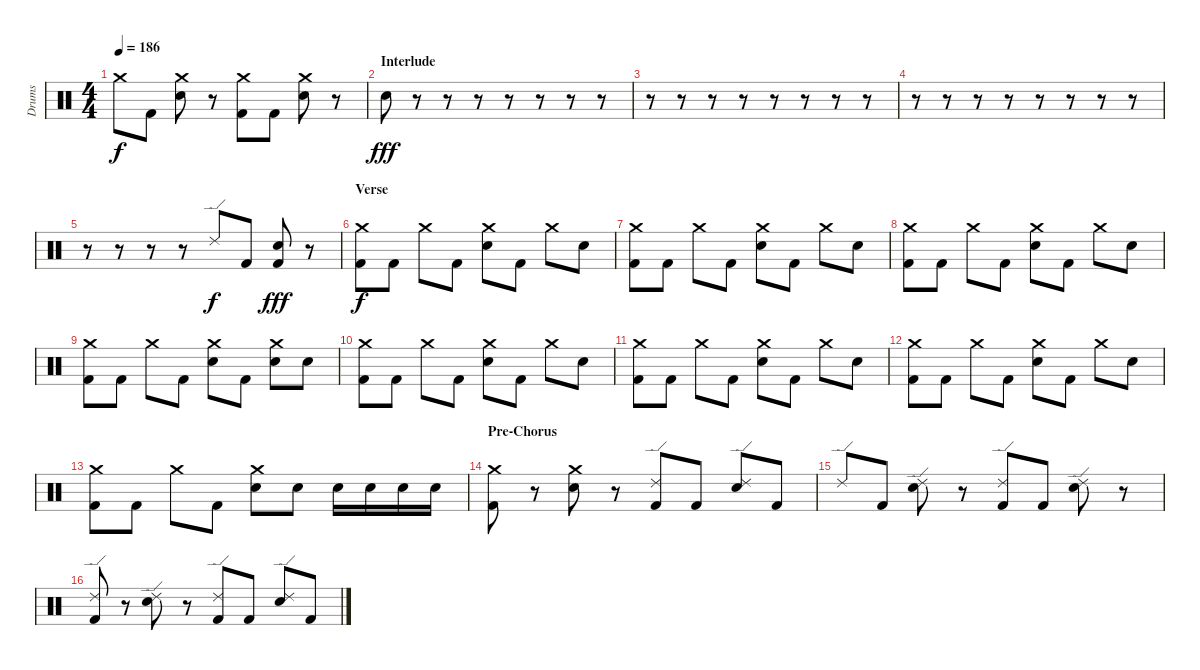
\track ("Drums" "Drums") {instrument percussion}
\staff {score}
\articulation defaults
\ts (4 4)
\tempo 186
\clef neutral
\ks c "Crash medium (hit)".8{dy f} "Kick (hit) 2".8
("Crash medium (hit)" "Electric Snare (hit)").8 r.8 ("Crash medium (hit)" "Kick (hit) 2").8 "Kick (hit) 2".8 ("Crash medium (hit)" "Electric Snare (hit)").8 r.8 |
\section ("" "Interlude")
"Electric Snare (hit)".8{dy fff} r.8 r.8 r.8 r.8 r.8 r.8 r.8 |
r.8 r.8 r.8 r.8 r.8 r.8 r.8 r.8 |
r.8 r.8 r.8 r.8 r.8 r.8 r.8 r.8 |
r.8 r.8 r.8 r.8 "Ride (edge) 2".8{dy f} "Kick (hit) 2".8 ("Electric Snare (hit)" "Kick (hit) 2").8{dy fff} r.8 |
\section ("" "Verse")
("Crash medium (hit)" "Kick (hit) 2").8{dy f} "Kick (hit) 2".8 "Crash medium (hit)".8 "Kick (hit) 2".8 ("Crash medium (hit)" "Electric Snare (hit)").8 "Kick (hit) 2".8 "Crash medium (hit)".8 "Electric Snare (hit)".8 |
("Crash medium (hit)" "Kick (hit) 2").8 "Kick (hit) 2".8 "Crash medium (hit)".8 "Kick (hit) 2".8 ("Crash medium (hit)" "Electric Snare (hit)").8 "Kick (hit) 2".8 "Crash medium (hit)".8 "Electric Snare (hit)".8 |
("Crash medium (hit)" "Kick (hit) 2").8 "Kick (hit) 2".8 "Crash medium (hit)".8 "Kick (hit) 2".8 ("Crash medium (hit)" "Electric Snare (hit)").8 "Kick (hit) 2".8 "Crash medium (hit)".8 "Electric Snare (hit)".8 |
("Crash medium (hit)" "Kick (hit) 2").8 "Kick (hit) 2".8 "Crash medium (hit)".8 "Kick (hit) 2".8 ("Crash medium (hit)" "Electric Snare (hit)").8 "Kick (hit) 2".8 ("Crash medium (hit)" "Electric Snare (hit)").8 "Electric Snare (hit)".8 |
("Crash medium (hit)" "Kick (hit) 2").8 "Kick (hit) 2".8 "Crash medium (hit)".8 "Kick (hit) 2".8 ("Crash medium (hit)" "Electric Snare (hit)").8 "Kick (hit) 2".8 "Crash medium (hit)".8 "Electric Snare (hit)".8 |
("Crash medium (hit)" "Kick (hit) 2").8 "Kick (hit) 2".8 "Crash medium (hit)".8 "Kick (hit) 2".8 ("Crash medium (hit)" "Electric Snare (hit)").8 "Kick (hit) 2".8 "Crash medium (hit)".8 "Electric Snare (hit)".8 |
("Crash medium (hit)" "Kick (hit) 2").8 "Kick (hit) 2".8 "Crash medium (hit)".8 "Kick (hit) 2".8 ("Crash medium (hit)" "Electric Snare (hit)").8 "Kick (hit) 2".8 "Crash medium (hit)".8 "Electric Snare (hit)".8 |
("Crash medium (hit)" "Kick (hit) 2").8 "Kick (hit) 2".8 "Crash medium (hit)".8 "Kick (hit) 2".8 ("Crash medium (hit)" "Electric Snare (hit)").8 "Electric Snare (hit)".8 "Electric Snare (hit)".16 "Electric Snare (hit)".16 "Electric Snare (hit)".16 "Electric Snare (hit)".16 |
\section ("" "Pre-Chorus")
("Crash medium (hit)" "Kick (hit) 2").8 r.8 ("Crash medium (hit)" "Electric Snare (hit)").8 r.8 ("Ride (edge) 2" "Kick (hit) 2").8 "Kick (hit) 2".8 ("Ride (edge) 2" "Electric Snare (hit)").8 "Kick (hit) 2".8 |
"Ride (edge) 2".8 "Kick (hit) 2".8 ("Ride (edge) 2" "Electric Snare (hit)").8 r.8 ("Ride (edge) 2" "Kick (hit) 2").8 "Kick (hit) 2".8 ("Ride (edge) 2" "Electric Snare (hit)").8 r.8 |
("Ride (edge) 2" "Kick (hit) 2").8 r.8 ("Ride (edge) 2" "Electric Snare (hit)").8 r.8 ("Ride (edge) 2" "Kick (hit) 2").8 "Kick (hit) 2".8 ("Ride (edge) 2" "Electric Snare (hit)").8 "Kick (hit) 2".8
